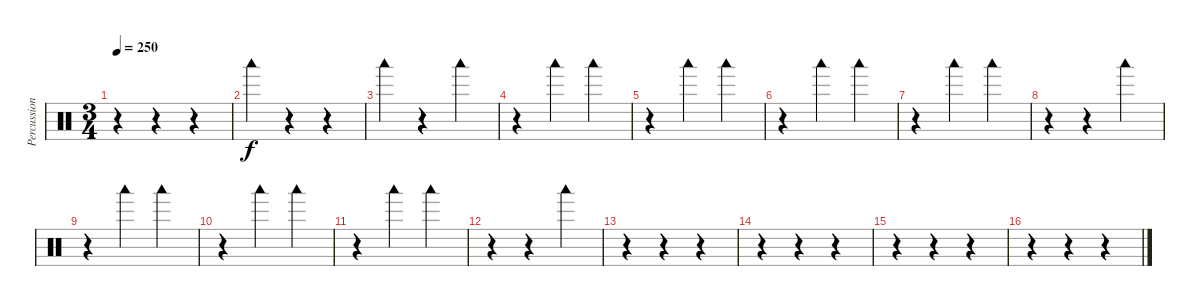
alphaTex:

\track ("Percussions" "Percussion") {instrument percussion}
\staff {score}
\articulation defaults
\ts (3 4)
\tempo 250
\clef neutral
\ks c
r.4{dy f} r.4 r.4 |
"Woodblock low (hit)".4 r.4 r.4 |
"Woodblock low (hit)".4 r.4 "Woodblock low (hit)".4 |
r.4 "Woodblock low (hit)".4 "Woodblock low (hit)".4 |
r.4 "Woodblock low (hit)".4 "Woodblock low (hit)".4 |
r.4 "Woodblock low (hit)".4 "Woodblock low (hit)".4 |
r.4 "Woodblock low (hit)".4 "Woodblock low (hit)".4 |
r.4 r.4 "Woodblock low (hit)".4 |
r.4 "Woodblock low (hit)".4 "Woodblock low (hit)".4 |
r.4 "Woodblock low (hit)".4 "Woodblock low (hit)".4 |
r.4 "Woodblock low (hit)".4 "Woodblock low (hit)".4 |
r.4 r.4 "Woodblock low (hit)".4 |
r.4 r.4 r.4 |
r.4 r.4 r.4 |
r.4 r.4 r.4 |
r.4 r.4 r.4
